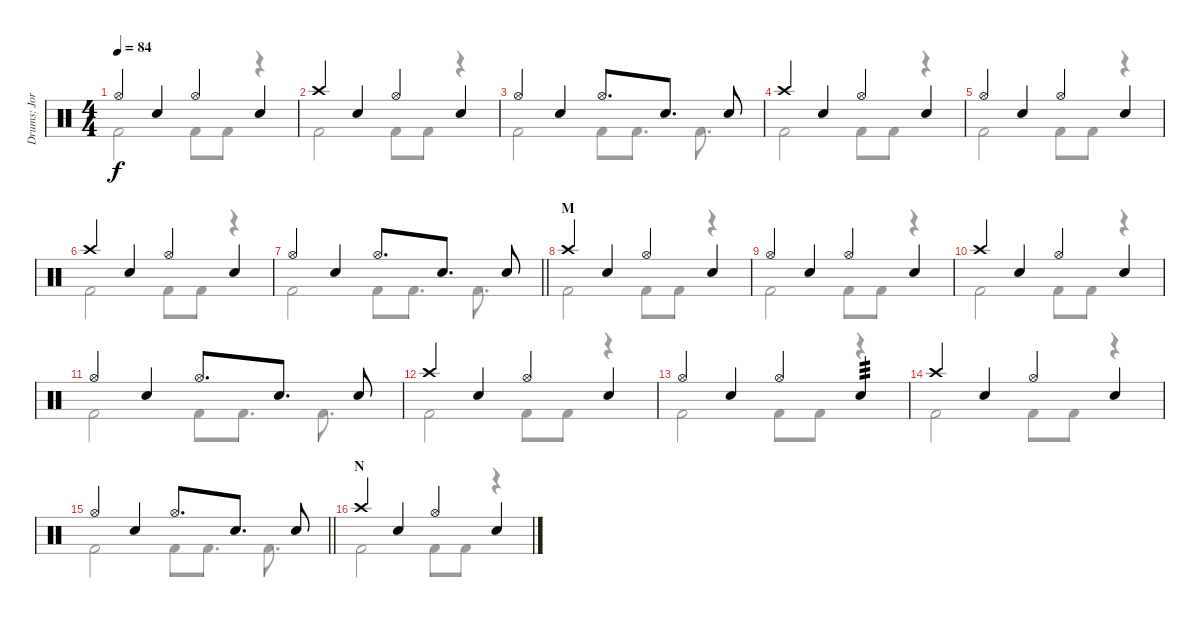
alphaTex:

\track ("Drums: Jorg" "Drums: Jor") {instrument percussion}
\staff {score}
\articulation defaults
\voice
\ts (4 4)
\tempo 84
\clef neutral
\ks c "Hi-Hat (open)".4{dy f} "Snare (hit) 2".4 "Hi-Hat (open)".4 "Snare (hit) 2".4
|
"Crash high (hit)".4 "Snare (hit) 2".4 "Hi-Hat (open)".4 "Snare (hit) 2".4 |
"Hi-Hat (open)".4 "Snare (hit) 2".4 "Hi-Hat (open)".8{d} "Snare (hit) 2".8{d} "Snare (hit) 2".8 |
"Crash high (hit)".4 "Snare (hit) 2".4 "Hi-Hat (open)".4 "Snare (hit) 2".4 |
"Hi-Hat (open)".4 "Snare (hit) 2".4 "Hi-Hat (open)".4 "Snare (hit) 2".4 |
"Crash high (hit)".4 "Snare (hit) 2".4 "Hi-Hat (open)".4 "Snare (hit) 2".4 |
\barLineRight lightlight "Hi-Hat (open)".4 "Snare (hit) 2".4 "Hi-Hat (open)".8{d} "Snare (hit) 2".8{d} "Snare (hit) 2".8
|
\section ("" "M")
"Crash high (hit)".4 "Snare (hit) 2".4 "Hi-Hat (open)".4 "Snare (hit) 2".4 |
"Hi-Hat (open)".4 "Snare (hit) 2".4 "Hi-Hat (open)".4 "Snare (hit) 2".4 |
"Crash high (hit)".4 "Snare (hit) 2".4 "Hi-Hat (open)".4 "Snare (hit) 2".4 |
"Hi-Hat (open)".4 "Snare (hit) 2".4 "Hi-Hat (open)".8{d} "Snare (hit) 2".8{d} "Snare (hit) 2".8 |
"Crash high (hit)".4 "Snare (hit) 2".4 "Hi-Hat (open)".4 "Snare (hit) 2".4 |
"Hi-Hat (open)".4 "Snare (hit) 2".4 "Hi-Hat (open)".4 "Snare (hit) 2".4{tp 3} |
"Crash high (hit)".4 "Snare (hit) 2".4 "Hi-Hat (open)".4 "Snare (hit) 2".4 |
\barLineRight lightlight "Hi-Hat (open)".4 "Snare (hit) 2".4 "Hi-Hat (open)".8{d} "Snare (hit) 2".8{d} "Snare (hit) 2".8
|
\section ("" "N")
"Crash high (hit)".4 "Snare (hit) 2".4 "Hi-Hat (open)".4 "Snare (hit) 2".4
\voice
\clef neutral
\ottava regular
\simile none
\ks c "Kick (hit) 2".2{dy f} "Kick (hit) 2".8 "Kick (hit) 2".8
r.4 |
"Kick (hit) 2".2 "Kick (hit) 2".8 "Kick (hit) 2".8 r.4 |
"Kick (hit) 2".2 "Kick (hit) 2".8 "Kick (hit) 2".8{d} "Kick (hit) 2".8{d} |
"Kick (hit) 2".2 "Kick (hit) 2".8 "Kick (hit) 2".8 r.4 |
"Kick (hit) 2".2 "Kick (hit) 2".8 "Kick (hit) 2".8 r.4 |
"Kick (hit) 2".2 "Kick (hit) 2".8 "Kick (hit) 2".8 r.4 |
\barLineRight lightlight "Kick (hit) 2".2 "Kick (hit) 2".8 "Kick (hit) 2".8{d} "Kick (hit) 2".8{d}
|
"Kick (hit) 2".2 "Kick (hit) 2".8 "Kick (hit) 2".8 r.4 |
"Kick (hit) 2".2 "Kick (hit) 2".8 "Kick (hit) 2".8 r.4 |
"Kick (hit) 2".2 "Kick (hit) 2".8 "Kick (hit) 2".8 r.4 |
"Kick (hit) 2".2 "Kick (hit) 2".8 "Kick (hit) 2".8{d} "Kick (hit) 2".8{d} |
"Kick (hit) 2".2 "Kick (hit) 2".8 "Kick (hit) 2".8 r.4 |
"Kick (hit) 2".2 "Kick (hit) 2".8 "Kick (hit) 2".8 r.4 |
"Kick (hit) 2".2 "Kick (hit) 2".8 "Kick (hit) 2".8 r.4 |
\barLineRight lightlight "Kick (hit) 2".2 "Kick (hit) 2".8 "Kick (hit) 2".8{d} "Kick (hit) 2".8{d}
|
"Kick (hit) 2".2 "Kick (hit) 2".8 "Kick (hit) 2".8 r.4
